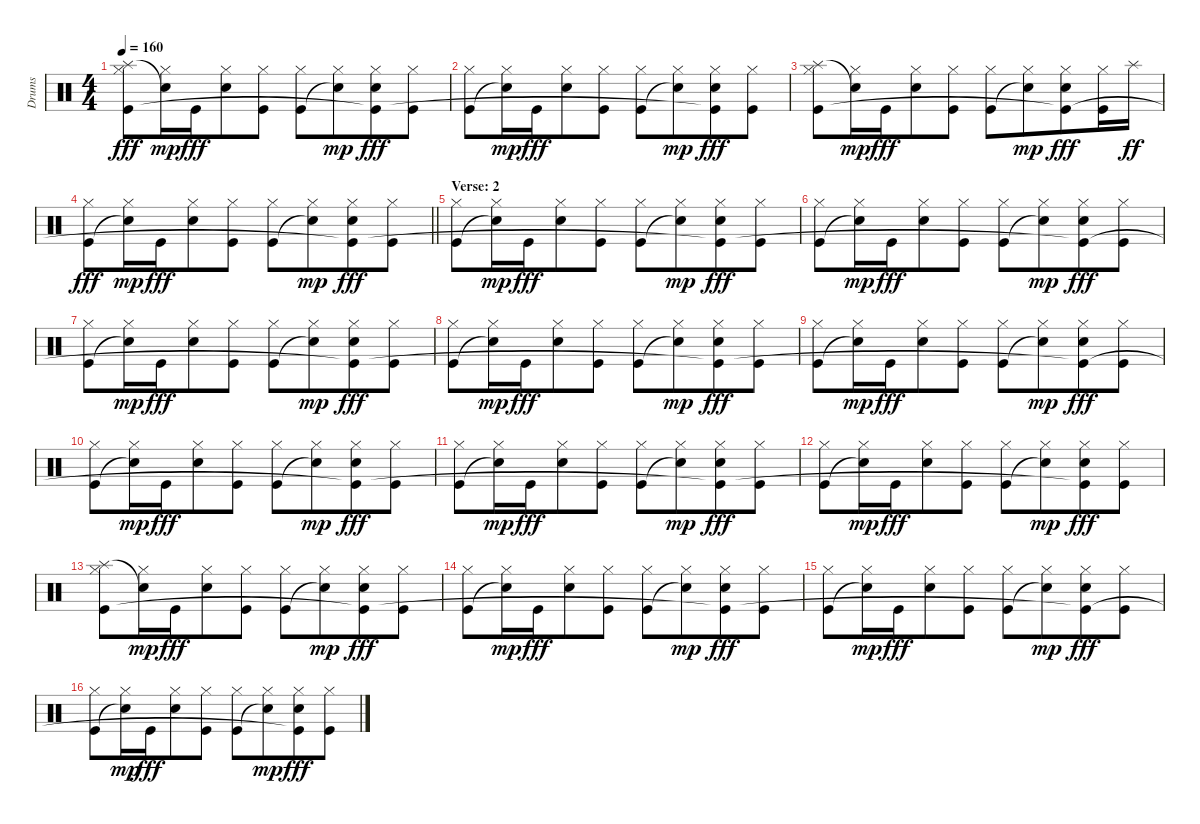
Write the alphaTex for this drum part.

\track ("Drums" "Drums") {instrument percussion}
\staff {score}
\articulation defaults
\ts (4 4)
\tempo 160
\clef neutral
\ks c
("Hi-Hat (closed)" "Splash (hit)" "Kick (hit)").8{dy fff} ("Hi-Hat (closed)" "Snare (hit)"{t}).16{dy mp} "Kick (hit)".16{dy fff beam merge} ("Hi-Hat (closed)" "Snare (hit) 2").8 ("Hi-Hat (closed)" "Kick (hit)").8 ("Hi-Hat (closed)" "Kick (hit)").8 ("Hi-Hat (closed)" "Snare (hit)"{t}).8{dy mp beam merge} ("Hi-Hat (closed)" "Snare (hit) 2" "Kick (hit)"{t}).8{dy fff} ("Hi-Hat (closed)" "Kick (hit)").8 |
("Hi-Hat (closed)" "Kick (hit)").8 ("Hi-Hat (closed)" "Snare (hit)"{t}).16{dy mp} "Kick (hit)".16{dy fff beam merge} ("Hi-Hat (closed)" "Snare (hit) 2").8 ("Hi-Hat (closed)" "Kick (hit)").8 ("Hi-Hat (closed)" "Kick (hit)").8 ("Hi-Hat (closed)" "Snare (hit)"{t}).8{dy mp beam merge} ("Hi-Hat (closed)" "Snare (hit) 2" "Kick (hit)"{t}).8{dy fff} ("Hi-Hat (closed)" "Kick (hit)").8 |
("Hi-Hat (closed)" "Splash (hit)" "Kick (hit)").8 ("Hi-Hat (closed)" "Snare (hit)"{t}).16{dy mp} "Kick (hit)".16{dy fff beam merge} ("Hi-Hat (closed)" "Snare (hit) 2").8 ("Hi-Hat (closed)" "Kick (hit)").8 ("Hi-Hat (closed)" "Kick (hit)").8 ("Hi-Hat (closed)" "Snare (hit)"{t}).8{dy mp beam merge} ("Hi-Hat (closed)" "Snare (hit) 2" "Kick (hit)"{t}).8{dy fff} ("Hi-Hat (closed)" "Kick (hit)").16 "Splash (hit)".16{dy ff} |
\barLineRight lightlight
("Hi-Hat (closed)" "Kick (hit)").8{dy fff} ("Hi-Hat (closed)" "Snare (hit)"{t}).16{dy mp} "Kick (hit)".16{dy fff beam merge} ("Hi-Hat (closed)" "Snare (hit) 2").8 ("Hi-Hat (closed)" "Kick (hit)").8 ("Hi-Hat (closed)" "Kick (hit)").8 ("Hi-Hat (closed)" "Snare (hit)"{t}).8{dy mp beam merge} ("Hi-Hat (closed)" "Snare (hit) 2" "Kick (hit)"{t}).8{dy fff} ("Hi-Hat (closed)" "Kick (hit)").8 |
\section ("" "Verse: 2")
("Hi-Hat (closed)" "Kick (hit)").8 ("Hi-Hat (closed)" "Snare (hit)"{t}).16{dy mp} "Kick (hit)".16{dy fff beam merge} ("Hi-Hat (closed)" "Snare (hit) 2").8 ("Hi-Hat (closed)" "Kick (hit)").8 ("Hi-Hat (closed)" "Kick (hit)").8 ("Hi-Hat (closed)" "Snare (hit)"{t}).8{dy mp beam merge} ("Hi-Hat (closed)" "Snare (hit) 2" "Kick (hit)"{t}).8{dy fff} ("Hi-Hat (closed)" "Kick (hit)").8 |
("Hi-Hat (closed)" "Kick (hit)").8 ("Hi-Hat (closed)" "Snare (hit)"{t}).16{dy mp} "Kick (hit)".16{dy fff beam merge} ("Hi-Hat (closed)" "Snare (hit) 2").8 ("Hi-Hat (closed)" "Kick (hit)").8 ("Hi-Hat (closed)" "Kick (hit)").8 ("Hi-Hat (closed)" "Snare (hit)"{t}).8{dy mp beam merge} ("Hi-Hat (closed)" "Snare (hit) 2" "Kick (hit)"{t}).8{dy fff} ("Hi-Hat (closed)" "Kick (hit)").8 |
("Hi-Hat (closed)" "Kick (hit)").8 ("Hi-Hat (closed)" "Snare (hit)"{t}).16{dy mp} "Kick (hit)".16{dy fff beam merge} ("Hi-Hat (closed)" "Snare (hit) 2").8 ("Hi-Hat (closed)" "Kick (hit)").8 ("Hi-Hat (closed)" "Kick (hit)").8 ("Hi-Hat (closed)" "Snare (hit)"{t}).8{dy mp beam merge} ("Hi-Hat (closed)" "Snare (hit) 2" "Kick (hit)"{t}).8{dy fff} ("Hi-Hat (closed)" "Kick (hit)").8 |
("Hi-Hat (closed)" "Kick (hit)").8 ("Hi-Hat (closed)" "Snare (hit)"{t}).16{dy mp} "Kick (hit)".16{dy fff beam merge} ("Hi-Hat (closed)" "Snare (hit) 2").8 ("Hi-Hat (closed)" "Kick (hit)").8 ("Hi-Hat (closed)" "Kick (hit)").8 ("Hi-Hat (closed)" "Snare (hit)"{t}).8{dy mp beam merge} ("Hi-Hat (closed)" "Snare (hit) 2" "Kick (hit)"{t}).8{dy fff} ("Hi-Hat (closed)" "Kick (hit)").8 |
("Hi-Hat (closed)" "Kick (hit)").8 ("Hi-Hat (closed)" "Snare (hit)"{t}).16{dy mp} "Kick (hit)".16{dy fff beam merge} ("Hi-Hat (closed)" "Snare (hit) 2").8 ("Hi-Hat (closed)" "Kick (hit)").8 ("Hi-Hat (closed)" "Kick (hit)").8 ("Hi-Hat (closed)" "Snare (hit)"{t}).8{dy mp beam merge} ("Hi-Hat (closed)" "Snare (hit) 2" "Kick (hit)"{t}).8{dy fff} ("Hi-Hat (closed)" "Kick (hit)").8 |
("Hi-Hat (closed)" "Kick (hit)").8 ("Hi-Hat (closed)" "Snare (hit)"{t}).16{dy mp} "Kick (hit)".16{dy fff beam merge} ("Hi-Hat (closed)" "Snare (hit) 2").8 ("Hi-Hat (closed)" "Kick (hit)").8 ("Hi-Hat (closed)" "Kick (hit)").8 ("Hi-Hat (closed)" "Snare (hit)"{t}).8{dy mp beam merge} ("Hi-Hat (closed)" "Snare (hit) 2" "Kick (hit)"{t}).8{dy fff} ("Hi-Hat (closed)" "Kick (hit)").8 |
("Hi-Hat (closed)" "Kick (hit)").8 ("Hi-Hat (closed)" "Snare (hit)"{t}).16{dy mp} "Kick (hit)".16{dy fff beam merge} ("Hi-Hat (closed)" "Snare (hit) 2").8 ("Hi-Hat (closed)" "Kick (hit)").8 ("Hi-Hat (closed)" "Kick (hit)").8 ("Hi-Hat (closed)" "Snare (hit)"{t}).8{dy mp beam merge} ("Hi-Hat (closed)" "Snare (hit) 2" "Kick (hit)"{t}).8{dy fff} ("Hi-Hat (closed)" "Kick (hit)").8 |
("Hi-Hat (closed)" "Kick (hit)").8 ("Hi-Hat (closed)" "Snare (hit)"{t}).16{dy mp} "Kick (hit)".16{dy fff beam merge} ("Hi-Hat (closed)" "Snare (hit) 2").8 ("Hi-Hat (closed)" "Kick (hit)").8 ("Hi-Hat (closed)" "Kick (hit)").8 ("Hi-Hat (closed)" "Snare (hit)"{t}).8{dy mp beam merge} ("Hi-Hat (closed)" "Snare (hit) 2" "Kick (hit)"{t}).8{dy fff} ("Hi-Hat (closed)" "Kick (hit)").8 |
("Hi-Hat (closed)" "Splash (hit)" "Kick (hit)").8 ("Hi-Hat (closed)" "Snare (hit)"{t}).16{dy mp} "Kick (hit)".16{dy fff beam merge} ("Hi-Hat (closed)" "Snare (hit) 2").8 ("Hi-Hat (closed)" "Kick (hit)").8 ("Hi-Hat (closed)" "Kick (hit)").8 ("Hi-Hat (closed)" "Snare (hit)"{t}).8{dy mp beam merge} ("Hi-Hat (closed)" "Snare (hit) 2" "Kick (hit)"{t}).8{dy fff} ("Hi-Hat (closed)" "Kick (hit)").8 |
("Hi-Hat (closed)" "Kick (hit)").8 ("Hi-Hat (closed)" "Snare (hit)"{t}).16{dy mp} "Kick (hit)".16{dy fff beam merge} ("Hi-Hat (closed)" "Snare (hit) 2").8 ("Hi-Hat (closed)" "Kick (hit)").8 ("Hi-Hat (closed)" "Kick (hit)").8 ("Hi-Hat (closed)" "Snare (hit)"{t}).8{dy mp beam merge} ("Hi-Hat (closed)" "Snare (hit) 2" "Kick (hit)"{t}).8{dy fff} ("Hi-Hat (closed)" "Kick (hit)").8 |
("Hi-Hat (closed)" "Kick (hit)").8 ("Hi-Hat (closed)" "Snare (hit)"{t}).16{dy mp} "Kick (hit)".16{dy fff beam merge} ("Hi-Hat (closed)" "Snare (hit) 2").8 ("Hi-Hat (closed)" "Kick (hit)").8 ("Hi-Hat (closed)" "Kick (hit)").8 ("Hi-Hat (closed)" "Snare (hit)"{t}).8{dy mp beam merge} ("Hi-Hat (closed)" "Snare (hit) 2" "Kick (hit)"{t}).8{dy fff} ("Hi-Hat (closed)" "Kick (hit)").8 |
("Hi-Hat (closed)" "Kick (hit)").8 ("Hi-Hat (closed)" "Snare (hit)"{t}).16{dy mp} "Kick (hit)".16{dy fff beam merge} ("Hi-Hat (closed)" "Snare (hit) 2").8 ("Hi-Hat (closed)" "Kick (hit)").8 ("Hi-Hat (closed)" "Kick (hit)").8 ("Hi-Hat (closed)" "Snare (hit)"{t}).8{dy mp beam merge} ("Hi-Hat (closed)" "Snare (hit) 2" "Kick (hit)"{t}).8{dy fff} ("Hi-Hat (closed)" "Kick (hit)").8
